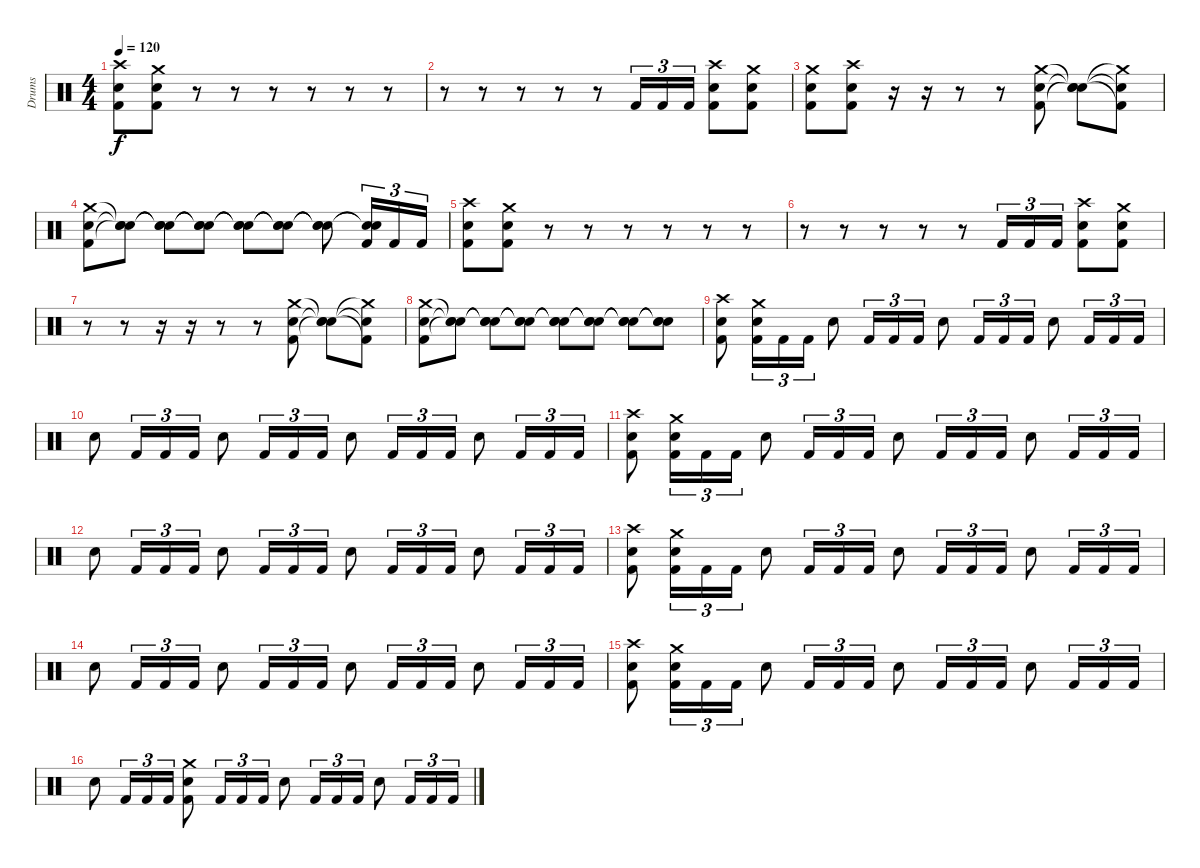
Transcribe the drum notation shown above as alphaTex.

\track ("Drums" "Drums") {instrument percussion}
\staff {score}
\articulation defaults
\ts (4 4)
\tempo 120
\clef neutral
\ks c
("Crash high (hit)" "Snare (hit) 2" "Kick (hit) 2").8{dy f} ("Crash medium (hit)" "Snare (hit) 2" "Kick (hit) 2").8 r.8 r.8 r.8 r.8 r.8 r.8 |
r.8 r.8 r.8 r.8 r.8 "Kick (hit) 2".16{tu (3 2)} "Kick (hit) 2".16{tu (3 2)} "Kick (hit) 2".16{tu (3 2)} ("Crash high (hit)" "Snare (hit) 2" "Kick (hit) 2").8 ("Crash medium (hit)" "Snare (hit) 2" "Kick (hit) 2").8 |
("Crash medium (hit)" "Snare (hit) 2" "Kick (hit) 2").8 ("Crash high (hit)" "Snare (hit) 2" "Kick (hit) 2").8 r.16 r.16 r.8 r.8 ("Crash medium (hit)" "Snare (hit) 2" "Kick (hit) 2").8 ("Snare (hit)"{t} "Snare (hit)"{t} "Snare (hit)"{t}).8 ("Crash medium (hit)"{t} "Snare (hit) 2"{t} "Kick (hit) 2"{t}).8 |
("Crash medium (hit)" "Snare (hit) 2" "Kick (hit) 2").8 ("Snare (hit)"{t} "Snare (hit)"{t} "Snare (hit)"{t}).8 ("Snare (hit)"{t} "Snare (hit)"{t} "Snare (hit)"{t}).8 ("Snare (hit)"{t} "Snare (hit)"{t} "Snare (hit)"{t}).8 ("Snare (hit)"{t} "Snare (hit)"{t} "Snare (hit)"{t}).8 ("Snare (hit)"{t} "Snare (hit)"{t} "Snare (hit)"{t}).8 ("Snare (hit)"{t} "Snare (hit)"{t} "Snare (hit)"{t}).8 ("Snare (hit)"{t} "Snare (hit)"{t} "Kick (hit) 2").16{tu (3 2)} "Kick (hit) 2".16{tu (3 2)} "Kick (hit) 2".16{tu (3 2)} |
("Crash high (hit)" "Snare (hit) 2" "Kick (hit) 2").8 ("Crash medium (hit)" "Snare (hit) 2" "Kick (hit) 2").8 r.8 r.8 r.8 r.8 r.8 r.8 |
r.8 r.8 r.8 r.8 r.8 "Kick (hit) 2".16{tu (3 2)} "Kick (hit) 2".16{tu (3 2)} "Kick (hit) 2".16{tu (3 2)} ("Crash high (hit)" "Snare (hit) 2" "Kick (hit) 2").8 ("Crash medium (hit)" "Snare (hit) 2" "Kick (hit) 2").8 |
r.8 r.8 r.16 r.16 r.8 r.8 ("Crash medium (hit)" "Snare (hit) 2" "Kick (hit) 2").8 ("Snare (hit)"{t} "Snare (hit)"{t} "Snare (hit)"{t}).8 ("Crash medium (hit)"{t} "Snare (hit) 2"{t} "Kick (hit) 2"{t}).8 |
("Crash medium (hit)" "Snare (hit) 2" "Kick (hit) 2").8 ("Snare (hit)"{t} "Snare (hit)"{t} "Snare (hit)"{t}).8 ("Snare (hit)"{t} "Snare (hit)"{t} "Snare (hit)"{t}).8 ("Snare (hit)"{t} "Snare (hit)"{t} "Snare (hit)"{t}).8 ("Snare (hit)"{t} "Snare (hit)"{t} "Snare (hit)"{t}).8 ("Snare (hit)"{t} "Snare (hit)"{t} "Snare (hit)"{t}).8 ("Snare (hit)"{t} "Snare (hit)"{t} "Snare (hit)"{t}).8 ("Snare (hit)"{t} "Snare (hit)"{t} "Snare (hit)"{t}).8 |
("Crash high (hit)" "Snare (hit) 2" "Kick (hit) 2").8 ("Crash medium (hit)" "Snare (hit) 2" "Kick (hit) 2").16{tu (3 2)} "Kick (hit) 2".16{tu (3 2)} "Kick (hit) 2".16{tu (3 2)} "Snare (hit) 2".8 "Kick (hit) 2".16{tu (3 2)} "Kick (hit) 2".16{tu (3 2)} "Kick (hit) 2".16{tu (3 2)} "Snare (hit) 2".8 "Kick (hit) 2".16{tu (3 2)} "Kick (hit) 2".16{tu (3 2)} "Kick (hit) 2".16{tu (3 2)} "Snare (hit) 2".8 "Kick (hit) 2".16{tu (3 2)} "Kick (hit) 2".16{tu (3 2)} "Kick (hit) 2".16{tu (3 2)} |
"Snare (hit) 2".8 "Kick (hit) 2".16{tu (3 2)} "Kick (hit) 2".16{tu (3 2)} "Kick (hit) 2".16{tu (3 2)} "Snare (hit) 2".8 "Kick (hit) 2".16{tu (3 2)} "Kick (hit) 2".16{tu (3 2)} "Kick (hit) 2".16{tu (3 2)} "Snare (hit) 2".8 "Kick (hit) 2".16{tu (3 2)} "Kick (hit) 2".16{tu (3 2)} "Kick (hit) 2".16{tu (3 2)} "Snare (hit) 2".8 "Kick (hit) 2".16{tu (3 2)} "Kick (hit) 2".16{tu (3 2)} "Kick (hit) 2".16{tu (3 2)} |
("Crash high (hit)" "Snare (hit) 2" "Kick (hit) 2").8 ("Crash medium (hit)" "Snare (hit) 2" "Kick (hit) 2").16{tu (3 2)} "Kick (hit) 2".16{tu (3 2)} "Kick (hit) 2".16{tu (3 2)} "Snare (hit) 2".8 "Kick (hit) 2".16{tu (3 2)} "Kick (hit) 2".16{tu (3 2)} "Kick (hit) 2".16{tu (3 2)} "Snare (hit) 2".8 "Kick (hit) 2".16{tu (3 2)} "Kick (hit) 2".16{tu (3 2)} "Kick (hit) 2".16{tu (3 2)} "Snare (hit) 2".8 "Kick (hit) 2".16{tu (3 2)} "Kick (hit) 2".16{tu (3 2)} "Kick (hit) 2".16{tu (3 2)} |
"Snare (hit) 2".8 "Kick (hit) 2".16{tu (3 2)} "Kick (hit) 2".16{tu (3 2)} "Kick (hit) 2".16{tu (3 2)} "Snare (hit) 2".8 "Kick (hit) 2".16{tu (3 2)} "Kick (hit) 2".16{tu (3 2)} "Kick (hit) 2".16{tu (3 2)} "Snare (hit) 2".8 "Kick (hit) 2".16{tu (3 2)} "Kick (hit) 2".16{tu (3 2)} "Kick (hit) 2".16{tu (3 2)} "Snare (hit) 2".8 "Kick (hit) 2".16{tu (3 2)} "Kick (hit) 2".16{tu (3 2)} "Kick (hit) 2".16{tu (3 2)} |
("Crash high (hit)" "Snare (hit) 2" "Kick (hit) 2").8 ("Crash medium (hit)" "Snare (hit) 2" "Kick (hit) 2").16{tu (3 2)} "Kick (hit) 2".16{tu (3 2)} "Kick (hit) 2".16{tu (3 2)} "Snare (hit) 2".8 "Kick (hit) 2".16{tu (3 2)} "Kick (hit) 2".16{tu (3 2)} "Kick (hit) 2".16{tu (3 2)} "Snare (hit) 2".8 "Kick (hit) 2".16{tu (3 2)} "Kick (hit) 2".16{tu (3 2)} "Kick (hit) 2".16{tu (3 2)} "Snare (hit) 2".8 "Kick (hit) 2".16{tu (3 2)} "Kick (hit) 2".16{tu (3 2)} "Kick (hit) 2".16{tu (3 2)} |
"Snare (hit) 2".8 "Kick (hit) 2".16{tu (3 2)} "Kick (hit) 2".16{tu (3 2)} "Kick (hit) 2".16{tu (3 2)} "Snare (hit) 2".8 "Kick (hit) 2".16{tu (3 2)} "Kick (hit) 2".16{tu (3 2)} "Kick (hit) 2".16{tu (3 2)} "Snare (hit) 2".8 "Kick (hit) 2".16{tu (3 2)} "Kick (hit) 2".16{tu (3 2)} "Kick (hit) 2".16{tu (3 2)} "Snare (hit) 2".8 "Kick (hit) 2".16{tu (3 2)} "Kick (hit) 2".16{tu (3 2)} "Kick (hit) 2".16{tu (3 2)} |
("Crash high (hit)" "Snare (hit) 2" "Kick (hit) 2").8 ("Crash medium (hit)" "Snare (hit) 2" "Kick (hit) 2").16{tu (3 2)} "Kick (hit) 2".16{tu (3 2)} "Kick (hit) 2".16{tu (3 2)} "Snare (hit) 2".8 "Kick (hit) 2".16{tu (3 2)} "Kick (hit) 2".16{tu (3 2)} "Kick (hit) 2".16{tu (3 2)} "Snare (hit) 2".8 "Kick (hit) 2".16{tu (3 2)} "Kick (hit) 2".16{tu (3 2)} "Kick (hit) 2".16{tu (3 2)} "Snare (hit) 2".8 "Kick (hit) 2".16{tu (3 2)} "Kick (hit) 2".16{tu (3 2)} "Kick (hit) 2".16{tu (3 2)} |
"Snare (hit) 2".8 "Kick (hit) 2".16{tu (3 2)} "Kick (hit) 2".16{tu (3 2)} "Kick (hit) 2".16{tu (3 2)} ("Crash medium (hit)" "Snare (hit) 2" "Kick (hit) 2").8 "Kick (hit) 2".16{tu (3 2)} "Kick (hit) 2".16{tu (3 2)} "Kick (hit) 2".16{tu (3 2)} "Snare (hit) 2".8 "Kick (hit) 2".16{tu (3 2)} "Kick (hit) 2".16{tu (3 2)} "Kick (hit) 2".16{tu (3 2)} "Snare (hit) 2".8 "Kick (hit) 2".16{tu (3 2)} "Kick (hit) 2".16{tu (3 2)} "Kick (hit) 2".16{tu (3 2)}
